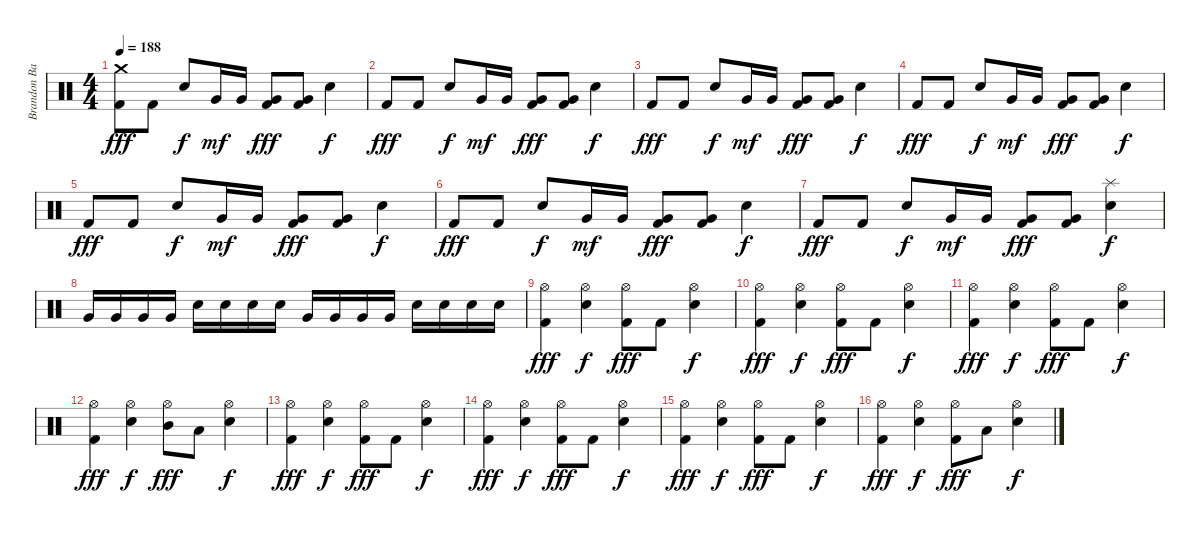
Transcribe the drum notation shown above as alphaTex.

\track ("Brandon Barnes (Drums)" "Brandon Ba") {instrument percussion}
\staff {score}
\articulation defaults
\ts (4 4)
\tempo 188
\clef neutral
\ks c
("Crash medium (hit)" "Kick (hit) 2").8{dy fff} "Kick (hit) 2".8 "Electric Snare (hit)".8{dy f} "Very Low Tom (hit)".16{dy mf} "Very Low Tom (hit)".16 ("Very Low Tom (hit)" "Kick (hit) 2").8{dy fff} ("Very Low Tom (hit)" "Kick (hit) 2").8 "Electric Snare (hit)".4{dy f} |
"Kick (hit) 2".8{dy fff} "Kick (hit) 2".8 "Electric Snare (hit)".8{dy f} "Very Low Tom (hit)".16{dy mf} "Very Low Tom (hit)".16 ("Very Low Tom (hit)" "Kick (hit) 2").8{dy fff} ("Very Low Tom (hit)" "Kick (hit) 2").8 "Electric Snare (hit)".4{dy f} |
"Kick (hit) 2".8{dy fff} "Kick (hit) 2".8 "Electric Snare (hit)".8{dy f} "Very Low Tom (hit)".16{dy mf} "Very Low Tom (hit)".16 ("Very Low Tom (hit)" "Kick (hit) 2").8{dy fff} ("Very Low Tom (hit)" "Kick (hit) 2").8 "Electric Snare (hit)".4{dy f} |
"Kick (hit) 2".8{dy fff} "Kick (hit) 2".8 "Electric Snare (hit)".8{dy f} "Very Low Tom (hit)".16{dy mf} "Very Low Tom (hit)".16 ("Very Low Tom (hit)" "Kick (hit) 2").8{dy fff} ("Very Low Tom (hit)" "Kick (hit) 2").8 "Electric Snare (hit)".4{dy f} |
"Kick (hit) 2".8{dy fff} "Kick (hit) 2".8 "Electric Snare (hit)".8{dy f} "Very Low Tom (hit)".16{dy mf} "Very Low Tom (hit)".16 ("Very Low Tom (hit)" "Kick (hit) 2").8{dy fff} ("Very Low Tom (hit)" "Kick (hit) 2").8 "Electric Snare (hit)".4{dy f} |
"Kick (hit) 2".8{dy fff} "Kick (hit) 2".8 "Electric Snare (hit)".8{dy f} "Very Low Tom (hit)".16{dy mf} "Very Low Tom (hit)".16 ("Very Low Tom (hit)" "Kick (hit) 2").8{dy fff} ("Very Low Tom (hit)" "Kick (hit) 2").8 "Electric Snare (hit)".4{dy f} |
"Kick (hit) 2".8{dy fff} "Kick (hit) 2".8 "Electric Snare (hit)".8{dy f} "Very Low Tom (hit)".16{dy mf} "Very Low Tom (hit)".16 ("Very Low Tom (hit)" "Kick (hit) 2").8{dy fff} ("Very Low Tom (hit)" "Kick (hit) 2").8 ("Splash (hit)" "Electric Snare (hit)").4{dy f} |
"Very Low Tom (hit)".16 "Very Low Tom (hit)".16 "Very Low Tom (hit)".16 "Very Low Tom (hit)".16 "Electric Snare (hit)".16 "Electric Snare (hit)".16 "Electric Snare (hit)".16 "Electric Snare (hit)".16 "Very Low Tom (hit)".16 "Very Low Tom (hit)".16 "Very Low Tom (hit)".16 "Very Low Tom (hit)".16 "Electric Snare (hit)".16 "Electric Snare (hit)".16 "Electric Snare (hit)".16 "Electric Snare (hit)".16 |
("Hi-Hat (open)" "Kick (hit) 2").4{dy fff} ("Hi-Hat (open)" "Electric Snare (hit)").4{dy f} ("Hi-Hat (open)" "Kick (hit) 2").8{dy fff} "Kick (hit) 2".8 ("Hi-Hat (open)" "Electric Snare (hit)").4{dy f} |
("Hi-Hat (open)" "Kick (hit) 2").4{dy fff} ("Hi-Hat (open)" "Electric Snare (hit)").4{dy f} ("Hi-Hat (open)" "Kick (hit) 2").8{dy fff} "Kick (hit) 2".8 ("Hi-Hat (open)" "Electric Snare (hit)").4{dy f} |
("Hi-Hat (open)" "Kick (hit) 2").4{dy fff} ("Hi-Hat (open)" "Electric Snare (hit)").4{dy f} ("Hi-Hat (open)" "Kick (hit) 2").8{dy fff} "Kick (hit) 2".8 ("Hi-Hat (open)" "Electric Snare (hit)").4{dy f} |
("Hi-Hat (open)" "Kick (hit) 2").4{dy fff} ("Hi-Hat (open)" "Electric Snare (hit)").4{dy f} ("Hi-Hat (open)" "Mid Tom (hit)").8{dy fff} "Low Tom (hit)".8 ("Hi-Hat (open)" "Electric Snare (hit)").4{dy f} |
("Hi-Hat (open)" "Kick (hit) 2").4{dy fff} ("Hi-Hat (open)" "Electric Snare (hit)").4{dy f} ("Hi-Hat (open)" "Kick (hit) 2").8{dy fff} "Kick (hit) 2".8 ("Hi-Hat (open)" "Electric Snare (hit)").4{dy f} |
("Hi-Hat (open)" "Kick (hit) 2").4{dy fff} ("Hi-Hat (open)" "Electric Snare (hit)").4{dy f} ("Hi-Hat (open)" "Kick (hit) 2").8{dy fff} "Kick (hit) 2".8 ("Hi-Hat (open)" "Electric Snare (hit)").4{dy f} |
("Hi-Hat (open)" "Kick (hit) 2").4{dy fff} ("Hi-Hat (open)" "Electric Snare (hit)").4{dy f} ("Hi-Hat (open)" "Kick (hit) 2").8{dy fff} "Kick (hit) 2".8 ("Hi-Hat (open)" "Electric Snare (hit)").4{dy f} |
("Hi-Hat (open)" "Kick (hit) 2").4{dy fff} ("Hi-Hat (open)" "Electric Snare (hit)").4{dy f} ("Hi-Hat (open)" "Kick (hit) 2").8{dy fff} "Low Tom (hit)".8 ("Hi-Hat (open)" "Electric Snare (hit)").4{dy f}
